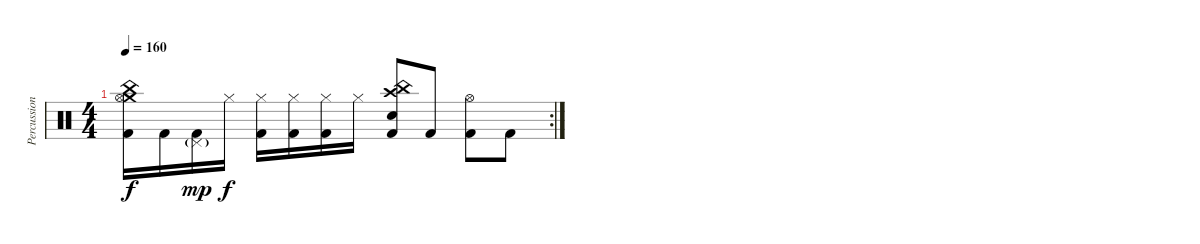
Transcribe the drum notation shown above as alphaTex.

\track ("Percussion" "Percussion") {instrument percussion}
\staff {score}
\articulation defaults
\rc 2
\ts (4 4)
\tempo 160
\clef neutral
\ks c
("Kick (hit) 2" "China (hit)" "Crash medium (hit)" "Hi-Hat (open)").16{dy f} "Kick (hit) 2".16 ("Kick (hit) 2" "Pedal Hi-Hat (hit)"{g}).16{dy mp} "Hi-Hat (closed)".16{dy f} ("Kick (hit) 2" "Hi-Hat (closed)").16 ("Kick (hit) 2" "Hi-Hat (closed)").16 ("Kick (hit) 2" "Hi-Hat (closed)").16 "Hi-Hat (closed)".16 ("Kick (hit) 2" "China (hit)" "Crash high (hit)" "Electric Snare (hit)").8 "Kick (hit) 2".8 ("Kick (hit) 2" "Hi-Hat (open)").8 "Kick (hit) 2".8
